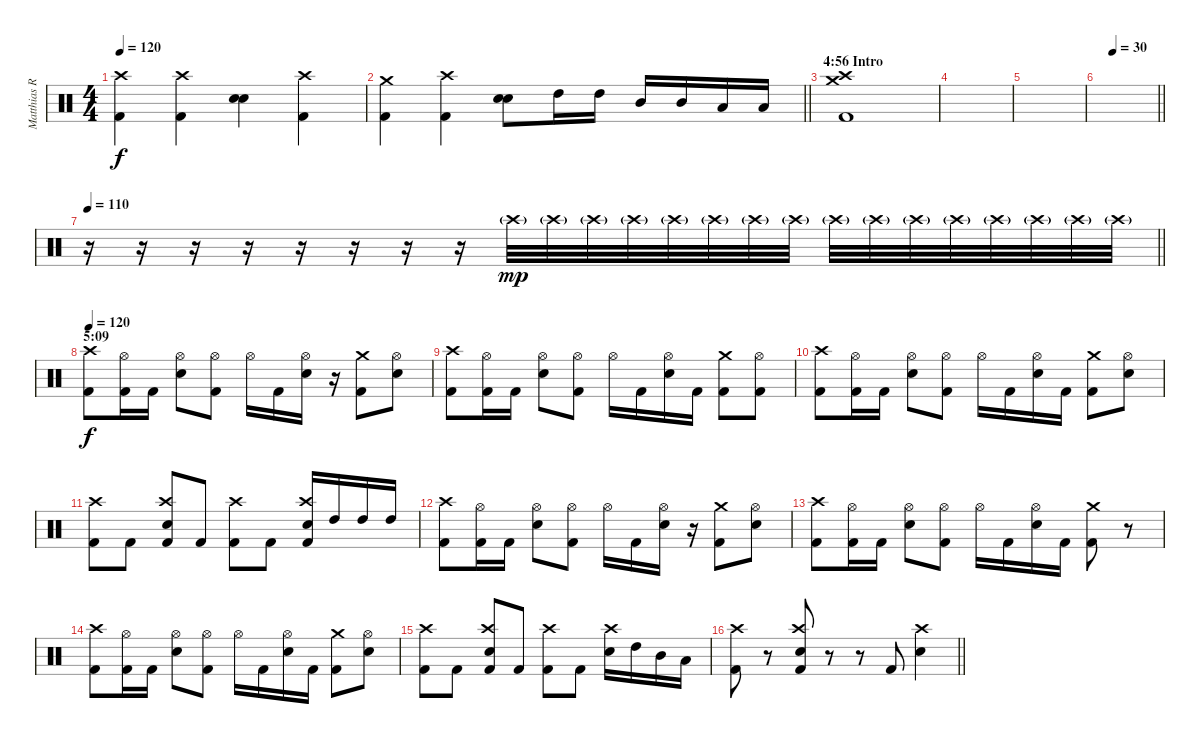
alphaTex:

\track ("Matthias R." "Matthias R") {instrument percussion}
\staff {score}
\articulation defaults
\ts (4 4)
\tempo 120
\clef neutral
\ks c
("Kick (hit) 2" "Crash high (hit)").4{dy f} ("Kick (hit) 2" "Crash high (hit)").4 ("Snare (hit) 2" "Electric Snare (hit)").4 ("Kick (hit) 2" "Crash high (hit)").4 |
\barLineRight lightlight
("Kick (hit) 2" "Crash medium (hit)").4 ("Kick (hit) 2" "Crash high (hit)").4 ("Snare (hit) 2" "Electric Snare (hit)").8{bu 60} "High Tom (hit)".16 "High Tom (hit)".16 "Mid Tom (hit)".16 "Mid Tom (hit)".16 "Low Tom (hit)".16 "Low Tom (hit)".16 |
\section ("" "4:56 Intro")
("Kick (hit) 2" "Crash high (hit)" "Crash medium (hit)").1 |
|
|
\tempo (30 0.25)
\barLineRight lightlight
|
\tempo 110
\barLineRight lightlight
r.16 r.16 r.16 r.16 r.16 r.16 r.16 r.16 "Crash high (hit)"{g}.32{dy mp volume 6} "Crash high (hit)"{g}.32 "Crash high (hit)"{g}.32{volume 7} "Crash high (hit)"{g}.32 "Crash high (hit)"{g}.32{volume 8} "Crash high (hit)"{g}.32 "Crash high (hit)"{g}.32{volume 9} "Crash high (hit)"{g}.32 "Crash high (hit)"{g}.32{volume 10} "Crash high (hit)"{g}.32 "Crash high (hit)"{g}.32{volume 11} "Crash high (hit)"{g}.32 "Crash high (hit)"{g}.32{volume 12} "Crash high (hit)"{g}.32 "Crash high (hit)"{g}.32{volume 13} "Crash high (hit)"{g}.32 |
\section ("" "5:09")
\tempo 120
("Kick (hit) 2" "Crash high (hit)").8{dy f volume 14} ("Kick (hit) 2" "Hi-Hat (open)").16 "Kick (hit) 2".16 ("Snare (hit) 2" "Hi-Hat (open)").8 ("Kick (hit) 2" "Hi-Hat (open)").8 "Hi-Hat (open)".16 "Kick (hit) 2".16 ("Snare (hit) 2" "Hi-Hat (open)").16 r.16 ("Kick (hit) 2" "Crash medium (hit)").8 ("Snare (hit) 2" "Hi-Hat (open)").8 |
("Kick (hit) 2" "Crash high (hit)").8 ("Kick (hit) 2" "Hi-Hat (open)").16 "Kick (hit) 2".16 ("Snare (hit) 2" "Hi-Hat (open)").8 ("Kick (hit) 2" "Hi-Hat (open)").8 "Hi-Hat (open)".16 "Kick (hit) 2".16 ("Snare (hit) 2" "Hi-Hat (open)").16 "Kick (hit) 2".16 ("Kick (hit) 2" "Crash medium (hit)").8 ("Kick (hit) 2" "Hi-Hat (open)").8 |
("Kick (hit) 2" "Crash high (hit)").8 ("Kick (hit) 2" "Hi-Hat (open)").16 "Kick (hit) 2".16 ("Snare (hit) 2" "Hi-Hat (open)").8 ("Kick (hit) 2" "Hi-Hat (open)").8 "Hi-Hat (open)".16 "Kick (hit) 2".16 ("Snare (hit) 2" "Hi-Hat (open)").16 "Kick (hit) 2".16 ("Kick (hit) 2" "Crash medium (hit)").8 ("Snare (hit) 2" "Hi-Hat (open)").8 |
("Kick (hit) 2" "Crash high (hit)").8 "Kick (hit) 2".8 ("Kick (hit) 2" "Snare (hit) 2" "Crash high (hit)").8 "Kick (hit) 2".8 ("Kick (hit) 2" "Crash high (hit)").8 "Kick (hit) 2".8 ("Kick (hit) 2" "Snare (hit) 2" "Crash high (hit)").16 "High Tom (hit)".16 "High Tom (hit)".16 "High Tom (hit)".16 |
("Kick (hit) 2" "Crash high (hit)").8 ("Kick (hit) 2" "Hi-Hat (open)").16 "Kick (hit) 2".16 ("Snare (hit) 2" "Hi-Hat (open)").8 ("Kick (hit) 2" "Hi-Hat (open)").8 "Hi-Hat (open)".16 "Kick (hit) 2".16 ("Snare (hit) 2" "Hi-Hat (open)").16 r.16 ("Kick (hit) 2" "Crash medium (hit)").8 ("Snare (hit) 2" "Hi-Hat (open)").8 |
("Kick (hit) 2" "Crash high (hit)").8 ("Kick (hit) 2" "Hi-Hat (open)").16 "Kick (hit) 2".16 ("Snare (hit) 2" "Hi-Hat (open)").8 ("Kick (hit) 2" "Hi-Hat (open)").8 "Hi-Hat (open)".16 "Kick (hit) 2".16 ("Snare (hit) 2" "Hi-Hat (open)").16 "Kick (hit) 2".16 ("Kick (hit) 2" "Crash medium (hit)").8 r.8 |
("Kick (hit) 2" "Crash high (hit)").8 ("Kick (hit) 2" "Hi-Hat (open)").16 "Kick (hit) 2".16 ("Snare (hit) 2" "Hi-Hat (open)").8 ("Kick (hit) 2" "Hi-Hat (open)").8 "Hi-Hat (open)".16 "Kick (hit) 2".16 ("Snare (hit) 2" "Hi-Hat (open)").16 "Kick (hit) 2".16 ("Kick (hit) 2" "Crash medium (hit)").8 ("Snare (hit) 2" "Hi-Hat (open)").8 |
("Kick (hit) 2" "Crash high (hit)").8 "Kick (hit) 2".8 ("Kick (hit) 2" "Snare (hit) 2" "Crash high (hit)").8 "Kick (hit) 2".8 ("Kick (hit) 2" "Crash high (hit)").8 "Kick (hit) 2".8 ("Snare (hit) 2" "Crash high (hit)").16 "High Tom (hit)".16 "Mid Tom (hit)".16 "Low Tom (hit)".16 |
\barLineRight lightlight
("Kick (hit) 2" "Crash high (hit)").8 r.8 ("Kick (hit) 2" "Snare (hit) 2" "Crash high (hit)").8 r.8 r.8 "Kick (hit) 2".8 ("Snare (hit) 2" "Crash high (hit)").4
